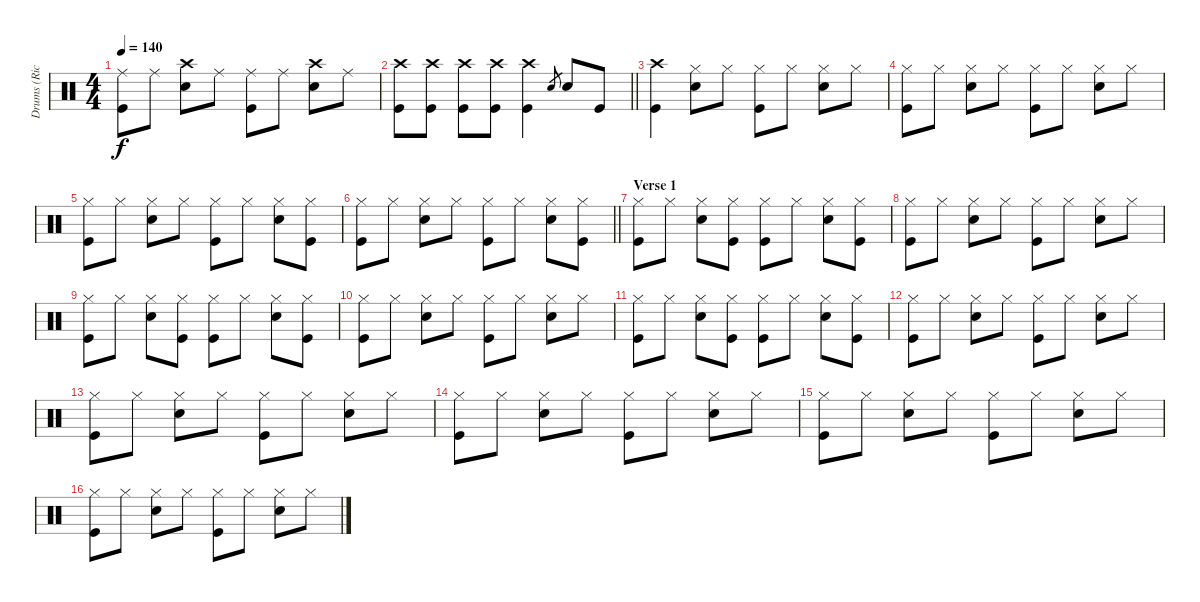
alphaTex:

\track ("Drums (Rick)" "Drums (Ric") {instrument percussion}
\staff {score}
\articulation defaults
\ts (4 4)
\tempo 140
\clef neutral
\ks aminor
("Ride (middle)" "Kick (hit)").8{dy f} "Ride (middle)".8 ("Crash high (hit)" "Snare (hit) 2").8 "Ride (middle)".8 ("Ride (middle)" "Kick (hit)").8 "Ride (middle)".8 ("Crash high (hit)" "Snare (hit) 2").8 "Ride (middle)".8 |
\barLineRight lightlight
("Crash high (hit)" "Kick (hit)").8 ("Crash high (hit)" "Kick (hit)").8 ("Crash high (hit)" "Kick (hit)").8 ("Crash high (hit)" "Kick (hit)").8 ("Crash high (hit)" "Kick (hit)").4 "Snare (hit) 2".8{gr} "Snare (hit) 2".8 "Kick (hit)".8 |
("Crash high (hit)" "Kick (hit)").4 ("Hi-Hat (closed)" "Snare (hit) 2").8 "Hi-Hat (closed)".8 ("Hi-Hat (closed)" "Kick (hit)").8 "Hi-Hat (closed)".8 ("Hi-Hat (closed)" "Snare (hit) 2").8 "Hi-Hat (closed)".8 |
("Hi-Hat (closed)" "Kick (hit)").8 "Hi-Hat (closed)".8 ("Hi-Hat (closed)" "Snare (hit) 2").8 "Hi-Hat (closed)".8 ("Hi-Hat (closed)" "Kick (hit)").8 "Hi-Hat (closed)".8 ("Hi-Hat (closed)" "Snare (hit) 2").8 "Hi-Hat (closed)".8 |
("Hi-Hat (closed)" "Kick (hit)").8 "Hi-Hat (closed)".8 ("Hi-Hat (closed)" "Snare (hit) 2").8 "Hi-Hat (closed)".8 ("Hi-Hat (closed)" "Kick (hit)").8 "Hi-Hat (closed)".8 ("Hi-Hat (closed)" "Snare (hit) 2").8 ("Hi-Hat (closed)" "Kick (hit)").8 |
\barLineRight lightlight
("Hi-Hat (closed)" "Kick (hit)").8 "Hi-Hat (closed)".8 ("Hi-Hat (closed)" "Snare (hit) 2").8 "Hi-Hat (closed)".8 ("Hi-Hat (closed)" "Kick (hit)").8 "Hi-Hat (closed)".8 ("Hi-Hat (closed)" "Snare (hit) 2").8 ("Hi-Hat (closed)" "Kick (hit)").8 |
\section ("" "Verse 1")
("Hi-Hat (closed)" "Kick (hit)").8 "Hi-Hat (closed)".8 ("Hi-Hat (closed)" "Snare (hit) 2").8 ("Hi-Hat (closed)" "Kick (hit)").8 ("Hi-Hat (closed)" "Kick (hit)").8 "Hi-Hat (closed)".8 ("Hi-Hat (closed)" "Snare (hit) 2").8 ("Hi-Hat (closed)" "Kick (hit)").8 |
("Hi-Hat (closed)" "Kick (hit)").8 "Hi-Hat (closed)".8 ("Hi-Hat (closed)" "Snare (hit) 2").8 "Hi-Hat (closed)".8 ("Hi-Hat (closed)" "Kick (hit)").8 "Hi-Hat (closed)".8 ("Hi-Hat (closed)" "Snare (hit) 2").8 "Hi-Hat (closed)".8 |
("Hi-Hat (closed)" "Kick (hit)").8 "Hi-Hat (closed)".8 ("Hi-Hat (closed)" "Snare (hit) 2").8 ("Hi-Hat (closed)" "Kick (hit)").8 ("Hi-Hat (closed)" "Kick (hit)").8 "Hi-Hat (closed)".8 ("Hi-Hat (closed)" "Snare (hit) 2").8 ("Hi-Hat (closed)" "Kick (hit)").8 |
("Hi-Hat (closed)" "Kick (hit)").8 "Hi-Hat (closed)".8 ("Hi-Hat (closed)" "Snare (hit) 2").8 "Hi-Hat (closed)".8 ("Hi-Hat (closed)" "Kick (hit)").8 "Hi-Hat (closed)".8 ("Hi-Hat (closed)" "Snare (hit) 2").8 "Hi-Hat (closed)".8 |
("Hi-Hat (closed)" "Kick (hit)").8 "Hi-Hat (closed)".8 ("Hi-Hat (closed)" "Snare (hit) 2").8 ("Hi-Hat (closed)" "Kick (hit)").8 ("Hi-Hat (closed)" "Kick (hit)").8 "Hi-Hat (closed)".8 ("Hi-Hat (closed)" "Snare (hit) 2").8 ("Hi-Hat (closed)" "Kick (hit)").8 |
("Hi-Hat (closed)" "Kick (hit)").8 "Hi-Hat (closed)".8 ("Hi-Hat (closed)" "Snare (hit) 2").8 "Hi-Hat (closed)".8 ("Hi-Hat (closed)" "Kick (hit)").8 "Hi-Hat (closed)".8 ("Hi-Hat (closed)" "Snare (hit) 2").8 "Hi-Hat (closed)".8 |
("Hi-Hat (closed)" "Kick (hit)").8 "Hi-Hat (closed)".8 ("Hi-Hat (closed)" "Snare (hit) 2").8 "Hi-Hat (closed)".8 ("Hi-Hat (closed)" "Kick (hit)").8 "Hi-Hat (closed)".8 ("Hi-Hat (closed)" "Snare (hit) 2").8 "Hi-Hat (closed)".8 |
("Hi-Hat (closed)" "Kick (hit)").8 "Hi-Hat (closed)".8 ("Hi-Hat (closed)" "Snare (hit) 2").8 "Hi-Hat (closed)".8 ("Hi-Hat (closed)" "Kick (hit)").8 "Hi-Hat (closed)".8 ("Hi-Hat (closed)" "Snare (hit) 2").8 "Hi-Hat (closed)".8 |
("Hi-Hat (closed)" "Kick (hit)").8 "Hi-Hat (closed)".8 ("Hi-Hat (closed)" "Snare (hit) 2").8 "Hi-Hat (closed)".8 ("Hi-Hat (closed)" "Kick (hit)").8 "Hi-Hat (closed)".8 ("Hi-Hat (closed)" "Snare (hit) 2").8 "Hi-Hat (closed)".8 |
("Hi-Hat (closed)" "Kick (hit)").8 "Hi-Hat (closed)".8 ("Hi-Hat (closed)" "Snare (hit) 2").8 "Hi-Hat (closed)".8 ("Hi-Hat (closed)" "Kick (hit)").8 "Hi-Hat (closed)".8 ("Hi-Hat (closed)" "Snare (hit) 2").8 "Hi-Hat (closed)".8
